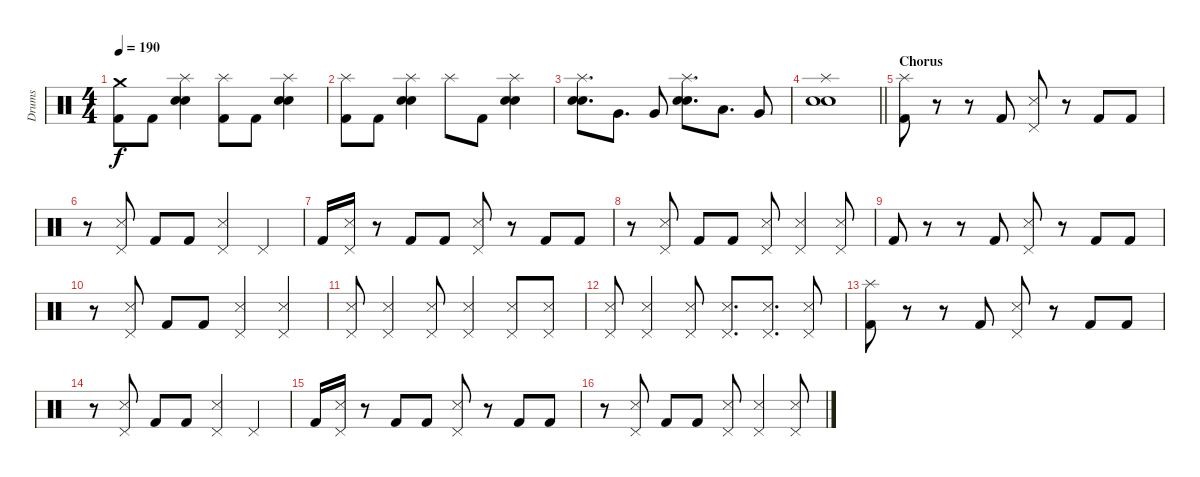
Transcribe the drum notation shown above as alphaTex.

\track ("Drums" "Drums") {instrument percussion}
\staff
\articulation defaults
\ts (4 4)
\tempo 190
\clef neutral
\ks c
("Crash medium (hit)" "Kick (hit) 2").8{dy f} "Kick (hit) 2".8 ("Splash (hit)" "Electric Snare (hit)" "Snare (hit) 2").4 ("Splash (hit)" "Kick (hit) 2").8 "Kick (hit) 2".8 ("Splash (hit)" "Electric Snare (hit)" "Snare (hit) 2").4 |
("Splash (hit)" "Kick (hit) 2").8 "Kick (hit) 2".8 ("Splash (hit)" "Electric Snare (hit)" "Snare (hit) 2").4 "Splash (hit)".8 "Kick (hit) 2".8 ("Splash (hit)" "Electric Snare (hit)" "Snare (hit) 2").4 |
("Splash (hit)" "Electric Snare (hit)" "Snare (hit) 2").8{d} "Very Low Tom (hit)".8{d} "Very Low Tom (hit)".8 ("Splash (hit)" "Electric Snare (hit)" "Snare (hit) 2").8{d} "Low Tom (hit)".8{d} "Very Low Tom (hit)".8 |
\barLineRight lightlight
("Splash (hit)" "Electric Snare (hit)" "Snare (hit) 2").1 |
\section ("" "Chorus")
("Splash (hit)" "Kick (hit) 2").8 r.8 r.8 "Kick (hit) 2".8 ("Pedal Hi-Hat (hit)" "Snare (side stick) 3").8 r.8 "Kick (hit) 2".8 "Kick (hit) 2".8 |
r.8 ("Pedal Hi-Hat (hit)" "Snare (side stick) 3").8 "Kick (hit) 2".8 "Kick (hit) 2".8 ("Pedal Hi-Hat (hit)" "Snare (side stick) 3").4 "Pedal Hi-Hat (hit)".4 |
"Kick (hit) 2".16 ("Pedal Hi-Hat (hit)" "Snare (side stick) 3").16 r.8 "Kick (hit) 2".8 "Kick (hit) 2".8 ("Pedal Hi-Hat (hit)" "Snare (side stick) 3").8 r.8 "Kick (hit) 2".8 "Kick (hit) 2".8 |
r.8 ("Pedal Hi-Hat (hit)" "Snare (side stick) 3").8 "Kick (hit) 2".8 "Kick (hit) 2".8 ("Pedal Hi-Hat (hit)" "Snare (side stick) 3").8 ("Pedal Hi-Hat (hit)" "Snare (side stick) 3").4 ("Pedal Hi-Hat (hit)" "Snare (side stick) 3").8 |
"Kick (hit) 2".8 r.8 r.8 "Kick (hit) 2".8 ("Pedal Hi-Hat (hit)" "Snare (side stick) 3").8 r.8 "Kick (hit) 2".8 "Kick (hit) 2".8 |
r.8 ("Pedal Hi-Hat (hit)" "Snare (side stick) 3").8 "Kick (hit) 2".8 "Kick (hit) 2".8 ("Pedal Hi-Hat (hit)" "Snare (side stick) 3").4 ("Pedal Hi-Hat (hit)" "Snare (side stick) 3").4 |
("Pedal Hi-Hat (hit)" "Snare (side stick) 3").8 ("Pedal Hi-Hat (hit)" "Snare (side stick) 3").4 ("Pedal Hi-Hat (hit)" "Snare (side stick) 3").8 ("Pedal Hi-Hat (hit)" "Snare (side stick) 3").4 ("Pedal Hi-Hat (hit)" "Snare (side stick) 3").8 ("Pedal Hi-Hat (hit)" "Snare (side stick) 3").8 |
("Pedal Hi-Hat (hit)" "Snare (side stick) 3").8 ("Pedal Hi-Hat (hit)" "Snare (side stick) 3").4 ("Pedal Hi-Hat (hit)" "Snare (side stick) 3").8 ("Pedal Hi-Hat (hit)" "Snare (side stick) 3").8{d} ("Pedal Hi-Hat (hit)" "Snare (side stick) 3").8{d} ("Pedal Hi-Hat (hit)" "Snare (side stick) 3").8 |
("Splash (hit)" "Kick (hit) 2").8 r.8 r.8 "Kick (hit) 2".8 ("Pedal Hi-Hat (hit)" "Snare (side stick) 3").8 r.8 "Kick (hit) 2".8 "Kick (hit) 2".8 |
r.8 ("Pedal Hi-Hat (hit)" "Snare (side stick) 3").8 "Kick (hit) 2".8 "Kick (hit) 2".8 ("Pedal Hi-Hat (hit)" "Snare (side stick) 3").4 "Pedal Hi-Hat (hit)".4 |
"Kick (hit) 2".16 ("Pedal Hi-Hat (hit)" "Snare (side stick) 3").16 r.8 "Kick (hit) 2".8 "Kick (hit) 2".8 ("Pedal Hi-Hat (hit)" "Snare (side stick) 3").8 r.8 "Kick (hit) 2".8 "Kick (hit) 2".8 |
r.8 ("Pedal Hi-Hat (hit)" "Snare (side stick) 3").8 "Kick (hit) 2".8 "Kick (hit) 2".8 ("Pedal Hi-Hat (hit)" "Snare (side stick) 3").8 ("Pedal Hi-Hat (hit)" "Snare (side stick) 3").4 ("Pedal Hi-Hat (hit)" "Snare (side stick) 3").8
